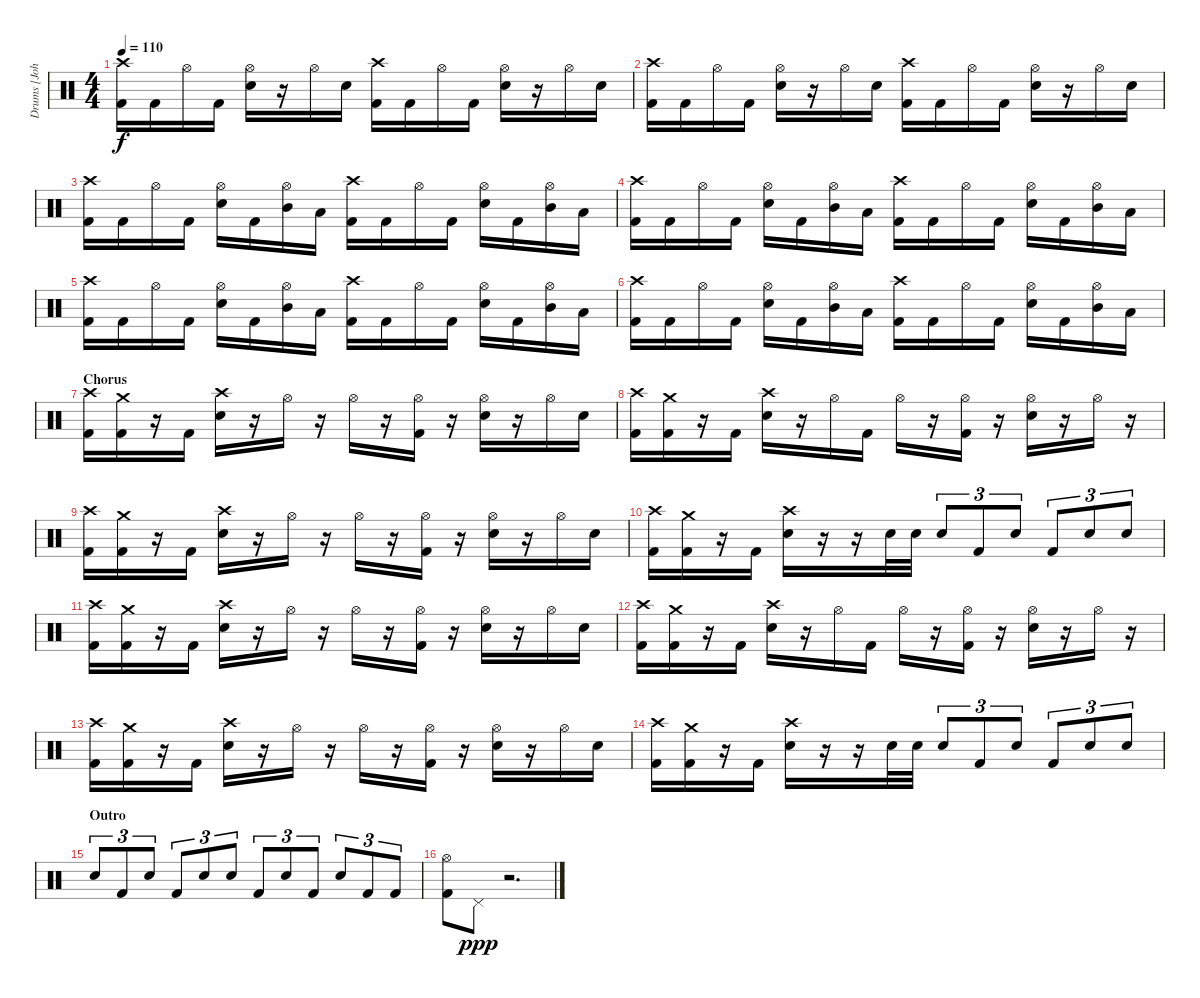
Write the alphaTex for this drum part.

\track ("Drums [John Otto]" "Drums [Joh") {instrument percussion}
\staff {score}
\articulation defaults
\ts (4 4)
\tempo 110
\clef neutral
\ks c
("Crash high (hit)" "Kick (hit) 2").16{dy f} "Kick (hit) 2".16 "Hi-Hat (open)".16 "Kick (hit) 2".16 ("Hi-Hat (open)" "Electric Snare (hit)").16 r.16 "Hi-Hat (open)".16 "Electric Snare (hit)".16 ("Crash high (hit)" "Kick (hit) 2").16 "Kick (hit) 2".16 "Hi-Hat (open)".16 "Kick (hit) 2".16 ("Hi-Hat (open)" "Electric Snare (hit)").16 r.16 "Hi-Hat (open)".16 "Electric Snare (hit)".16 |
("Crash high (hit)" "Kick (hit) 2").16 "Kick (hit) 2".16 "Hi-Hat (open)".16 "Kick (hit) 2".16 ("Hi-Hat (open)" "Electric Snare (hit)").16 r.16 "Hi-Hat (open)".16 "Electric Snare (hit)".16 ("Crash high (hit)" "Kick (hit) 2").16 "Kick (hit) 2".16 "Hi-Hat (open)".16 "Kick (hit) 2".16 ("Hi-Hat (open)" "Electric Snare (hit)").16 r.16 "Hi-Hat (open)".16 "Electric Snare (hit)".16 |
("Crash high (hit)" "Kick (hit) 2").16 "Kick (hit) 2".16 "Hi-Hat (open)".16 "Kick (hit) 2".16 ("Hi-Hat (open)" "Electric Snare (hit)").16 "Kick (hit) 2".16 ("Hi-Hat (open)" "Mid Tom (hit)").16 "Low Tom (hit)".16 ("Crash high (hit)" "Kick (hit) 2").16 "Kick (hit) 2".16 "Hi-Hat (open)".16 "Kick (hit) 2".16 ("Hi-Hat (open)" "Electric Snare (hit)").16 "Kick (hit) 2".16 ("Hi-Hat (open)" "Mid Tom (hit)").16 "Low Tom (hit)".16 |
("Crash high (hit)" "Kick (hit) 2").16 "Kick (hit) 2".16 "Hi-Hat (open)".16 "Kick (hit) 2".16 ("Hi-Hat (open)" "Electric Snare (hit)").16 "Kick (hit) 2".16 ("Hi-Hat (open)" "Mid Tom (hit)").16 "Low Tom (hit)".16 ("Crash high (hit)" "Kick (hit) 2").16 "Kick (hit) 2".16 "Hi-Hat (open)".16 "Kick (hit) 2".16 ("Hi-Hat (open)" "Electric Snare (hit)").16 "Kick (hit) 2".16 ("Hi-Hat (open)" "Mid Tom (hit)").16 "Low Tom (hit)".16 |
("Crash high (hit)" "Kick (hit) 2").16 "Kick (hit) 2".16 "Hi-Hat (open)".16 "Kick (hit) 2".16 ("Hi-Hat (open)" "Electric Snare (hit)").16 "Kick (hit) 2".16 ("Hi-Hat (open)" "Mid Tom (hit)").16 "Low Tom (hit)".16 ("Crash high (hit)" "Kick (hit) 2").16 "Kick (hit) 2".16 "Hi-Hat (open)".16 "Kick (hit) 2".16 ("Hi-Hat (open)" "Electric Snare (hit)").16 "Kick (hit) 2".16 ("Hi-Hat (open)" "Mid Tom (hit)").16 "Low Tom (hit)".16 |
("Crash high (hit)" "Kick (hit) 2").16 "Kick (hit) 2".16 "Hi-Hat (open)".16 "Kick (hit) 2".16 ("Hi-Hat (open)" "Electric Snare (hit)").16 "Kick (hit) 2".16 ("Hi-Hat (open)" "Mid Tom (hit)").16 "Low Tom (hit)".16 ("Crash high (hit)" "Kick (hit) 2").16 "Kick (hit) 2".16 "Hi-Hat (open)".16 "Kick (hit) 2".16 ("Hi-Hat (open)" "Electric Snare (hit)").16 "Kick (hit) 2".16 ("Hi-Hat (open)" "Mid Tom (hit)").16 "Low Tom (hit)".16 |
\section ("" "Chorus")
("Crash high (hit)" "Kick (hit) 2").16 ("Crash medium (hit)" "Kick (hit) 2").16 r.16 "Kick (hit) 2".16 ("Crash high (hit)" "Electric Snare (hit)").16 r.16 "Hi-Hat (open)".16 r.16 "Hi-Hat (open)".16 r.16 ("Hi-Hat (open)" "Kick (hit) 2").16 r.16 ("Hi-Hat (open)" "Electric Snare (hit)").16 r.16 "Hi-Hat (open)".16 "Electric Snare (hit)".16 |
("Crash high (hit)" "Kick (hit) 2").16 ("Crash medium (hit)" "Kick (hit) 2").16 r.16 "Kick (hit) 2".16 ("Crash high (hit)" "Electric Snare (hit)").16 r.16 "Hi-Hat (open)".16 "Kick (hit) 2".16 "Hi-Hat (open)".16 r.16 ("Hi-Hat (open)" "Kick (hit) 2").16 r.16 ("Hi-Hat (open)" "Electric Snare (hit)").16 r.16 "Hi-Hat (open)".16 r.16 |
("Crash high (hit)" "Kick (hit) 2").16 ("Crash medium (hit)" "Kick (hit) 2").16 r.16 "Kick (hit) 2".16 ("Crash high (hit)" "Electric Snare (hit)").16 r.16 "Hi-Hat (open)".16 r.16 "Hi-Hat (open)".16 r.16 ("Hi-Hat (open)" "Kick (hit) 2").16 r.16 ("Hi-Hat (open)" "Electric Snare (hit)").16 r.16 "Hi-Hat (open)".16 "Electric Snare (hit)".16 |
("Crash high (hit)" "Kick (hit) 2").16 ("Crash medium (hit)" "Kick (hit) 2").16 r.16 "Kick (hit) 2".16 ("Crash high (hit)" "Electric Snare (hit)").16 r.16 r.16 "Electric Snare (hit)".32 "Electric Snare (hit)".32 "Electric Snare (hit)".8{tu (3 2)} "Kick (hit) 2".8{tu (3 2)} "Electric Snare (hit)".8{tu (3 2)} "Kick (hit) 2".8{tu (3 2)} "Electric Snare (hit)".8{tu (3 2)} "Electric Snare (hit)".8{tu (3 2)} |
("Crash high (hit)" "Kick (hit) 2").16 ("Crash medium (hit)" "Kick (hit) 2").16 r.16 "Kick (hit) 2".16 ("Crash high (hit)" "Electric Snare (hit)").16 r.16 "Hi-Hat (open)".16 r.16 "Hi-Hat (open)".16 r.16 ("Hi-Hat (open)" "Kick (hit) 2").16 r.16 ("Hi-Hat (open)" "Electric Snare (hit)").16 r.16 "Hi-Hat (open)".16 "Electric Snare (hit)".16 |
("Crash high (hit)" "Kick (hit) 2").16 ("Crash medium (hit)" "Kick (hit) 2").16 r.16 "Kick (hit) 2".16 ("Crash high (hit)" "Electric Snare (hit)").16 r.16 "Hi-Hat (open)".16 "Kick (hit) 2".16 "Hi-Hat (open)".16 r.16 ("Hi-Hat (open)" "Kick (hit) 2").16 r.16 ("Hi-Hat (open)" "Electric Snare (hit)").16 r.16 "Hi-Hat (open)".16 r.16 |
("Crash high (hit)" "Kick (hit) 2").16 ("Crash medium (hit)" "Kick (hit) 2").16 r.16 "Kick (hit) 2".16 ("Crash high (hit)" "Electric Snare (hit)").16 r.16 "Hi-Hat (open)".16 r.16 "Hi-Hat (open)".16 r.16 ("Hi-Hat (open)" "Kick (hit) 2").16 r.16 ("Hi-Hat (open)" "Electric Snare (hit)").16 r.16 "Hi-Hat (open)".16 "Electric Snare (hit)".16 |
("Crash high (hit)" "Kick (hit) 2").16 ("Crash medium (hit)" "Kick (hit) 2").16 r.16 "Kick (hit) 2".16 ("Crash high (hit)" "Electric Snare (hit)").16 r.16 r.16 "Electric Snare (hit)".32 "Electric Snare (hit)".32 "Electric Snare (hit)".8{tu (3 2)} "Kick (hit) 2".8{tu (3 2)} "Electric Snare (hit)".8{tu (3 2)} "Kick (hit) 2".8{tu (3 2)} "Electric Snare (hit)".8{tu (3 2)} "Electric Snare (hit)".8{tu (3 2)} |
\section ("" "Outro")
"Electric Snare (hit)".8{tu (3 2)} "Kick (hit) 2".8{tu (3 2)} "Electric Snare (hit)".8{tu (3 2)} "Kick (hit) 2".8{tu (3 2)} "Electric Snare (hit)".8{tu (3 2)} "Electric Snare (hit)".8{tu (3 2)} "Kick (hit) 2".8{tu (3 2)} "Electric Snare (hit)".8{tu (3 2)} "Kick (hit) 2".8{tu (3 2)} "Electric Snare (hit)".8{tu (3 2)} "Kick (hit) 2".8{tu (3 2)} "Kick (hit) 2".8{tu (3 2)} |
("Hi-Hat (open)" "Kick (hit) 2").8 "Pedal Hi-Hat (hit)".8{dy ppp} r.2{d}
